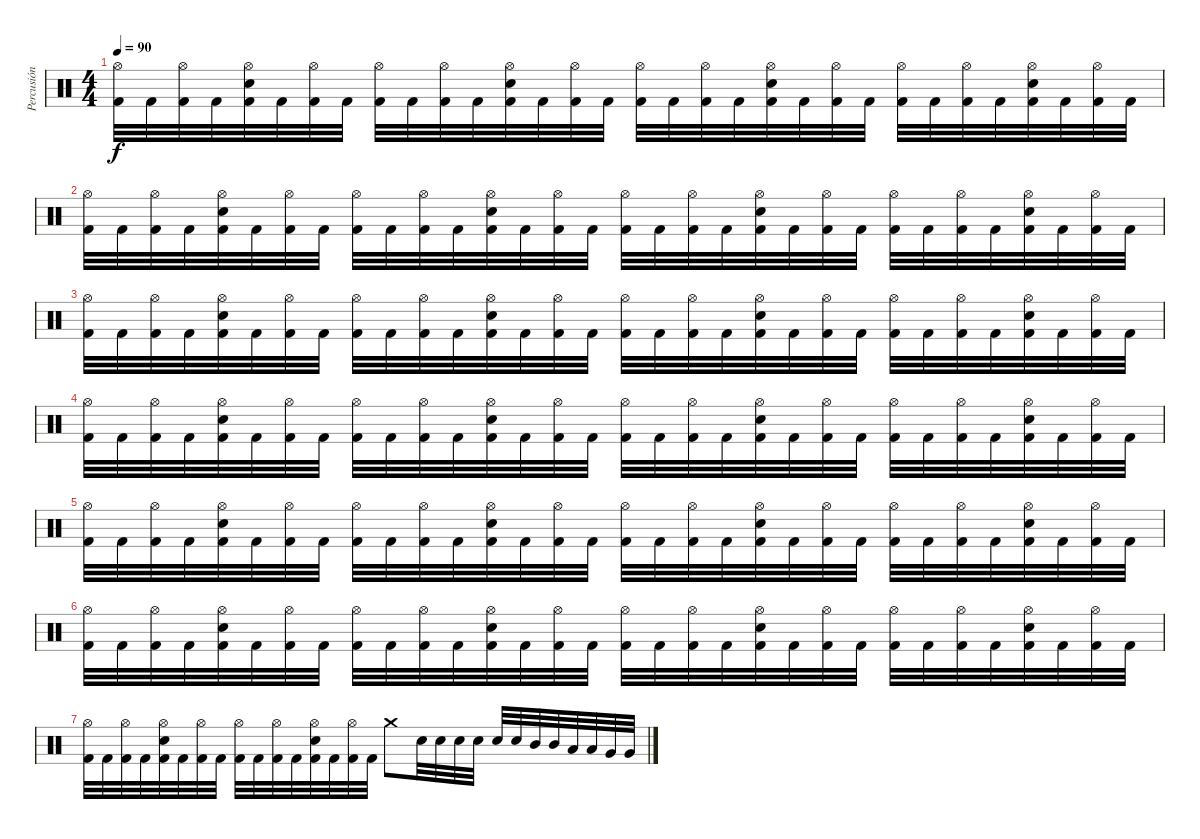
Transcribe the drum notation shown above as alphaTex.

\track ("Percusión" "Percusión") {instrument percussion}
\staff {score}
\articulation defaults
\ts (4 4)
\tempo 90
\clef neutral
\ks c
("Hi-Hat (open)" "Kick (hit) 2").32{dy f} "Kick (hit) 2".32 ("Hi-Hat (open)" "Kick (hit) 2").32 "Kick (hit) 2".32 ("Hi-Hat (open)" "Electric Snare (hit)" "Kick (hit) 2").32 "Kick (hit) 2".32 ("Hi-Hat (open)" "Kick (hit) 2").32 "Kick (hit) 2".32 ("Hi-Hat (open)" "Kick (hit) 2").32 "Kick (hit) 2".32 ("Hi-Hat (open)" "Kick (hit) 2").32 "Kick (hit) 2".32 ("Hi-Hat (open)" "Electric Snare (hit)" "Kick (hit) 2").32 "Kick (hit) 2".32 ("Hi-Hat (open)" "Kick (hit) 2").32 "Kick (hit) 2".32 ("Hi-Hat (open)" "Kick (hit) 2").32 "Kick (hit) 2".32 ("Hi-Hat (open)" "Kick (hit) 2").32 "Kick (hit) 2".32 ("Hi-Hat (open)" "Electric Snare (hit)" "Kick (hit) 2").32 "Kick (hit) 2".32 ("Hi-Hat (open)" "Kick (hit) 2").32 "Kick (hit) 2".32 ("Hi-Hat (open)" "Kick (hit) 2").32 "Kick (hit) 2".32 ("Hi-Hat (open)" "Kick (hit) 2").32 "Kick (hit) 2".32 ("Hi-Hat (open)" "Electric Snare (hit)" "Kick (hit) 2").32 "Kick (hit) 2".32 ("Hi-Hat (open)" "Kick (hit) 2").32 "Kick (hit) 2".32 |
("Hi-Hat (open)" "Kick (hit) 2").32 "Kick (hit) 2".32 ("Hi-Hat (open)" "Kick (hit) 2").32 "Kick (hit) 2".32 ("Hi-Hat (open)" "Electric Snare (hit)" "Kick (hit) 2").32 "Kick (hit) 2".32 ("Hi-Hat (open)" "Kick (hit) 2").32 "Kick (hit) 2".32 ("Hi-Hat (open)" "Kick (hit) 2").32 "Kick (hit) 2".32 ("Hi-Hat (open)" "Kick (hit) 2").32 "Kick (hit) 2".32 ("Hi-Hat (open)" "Electric Snare (hit)" "Kick (hit) 2").32 "Kick (hit) 2".32 ("Hi-Hat (open)" "Kick (hit) 2").32 "Kick (hit) 2".32 ("Hi-Hat (open)" "Kick (hit) 2").32 "Kick (hit) 2".32 ("Hi-Hat (open)" "Kick (hit) 2").32 "Kick (hit) 2".32 ("Hi-Hat (open)" "Electric Snare (hit)" "Kick (hit) 2").32 "Kick (hit) 2".32 ("Hi-Hat (open)" "Kick (hit) 2").32 "Kick (hit) 2".32 ("Hi-Hat (open)" "Kick (hit) 2").32 "Kick (hit) 2".32 ("Hi-Hat (open)" "Kick (hit) 2").32 "Kick (hit) 2".32 ("Hi-Hat (open)" "Electric Snare (hit)" "Kick (hit) 2").32 "Kick (hit) 2".32 ("Hi-Hat (open)" "Kick (hit) 2").32 "Kick (hit) 2".32 |
("Hi-Hat (open)" "Kick (hit) 2").32 "Kick (hit) 2".32 ("Hi-Hat (open)" "Kick (hit) 2").32 "Kick (hit) 2".32 ("Hi-Hat (open)" "Electric Snare (hit)" "Kick (hit) 2").32 "Kick (hit) 2".32 ("Hi-Hat (open)" "Kick (hit) 2").32 "Kick (hit) 2".32 ("Hi-Hat (open)" "Kick (hit) 2").32 "Kick (hit) 2".32 ("Hi-Hat (open)" "Kick (hit) 2").32 "Kick (hit) 2".32 ("Hi-Hat (open)" "Electric Snare (hit)" "Kick (hit) 2").32 "Kick (hit) 2".32 ("Hi-Hat (open)" "Kick (hit) 2").32 "Kick (hit) 2".32 ("Hi-Hat (open)" "Kick (hit) 2").32 "Kick (hit) 2".32 ("Hi-Hat (open)" "Kick (hit) 2").32 "Kick (hit) 2".32 ("Hi-Hat (open)" "Electric Snare (hit)" "Kick (hit) 2").32 "Kick (hit) 2".32 ("Hi-Hat (open)" "Kick (hit) 2").32 "Kick (hit) 2".32 ("Hi-Hat (open)" "Kick (hit) 2").32 "Kick (hit) 2".32 ("Hi-Hat (open)" "Kick (hit) 2").32 "Kick (hit) 2".32 ("Hi-Hat (open)" "Electric Snare (hit)" "Kick (hit) 2").32 "Kick (hit) 2".32 ("Hi-Hat (open)" "Kick (hit) 2").32 "Kick (hit) 2".32 |
("Hi-Hat (open)" "Kick (hit) 2").32 "Kick (hit) 2".32 ("Hi-Hat (open)" "Kick (hit) 2").32 "Kick (hit) 2".32 ("Hi-Hat (open)" "Electric Snare (hit)" "Kick (hit) 2").32 "Kick (hit) 2".32 ("Hi-Hat (open)" "Kick (hit) 2").32 "Kick (hit) 2".32 ("Hi-Hat (open)" "Kick (hit) 2").32 "Kick (hit) 2".32 ("Hi-Hat (open)" "Kick (hit) 2").32 "Kick (hit) 2".32 ("Hi-Hat (open)" "Electric Snare (hit)" "Kick (hit) 2").32 "Kick (hit) 2".32 ("Hi-Hat (open)" "Kick (hit) 2").32 "Kick (hit) 2".32 ("Hi-Hat (open)" "Kick (hit) 2").32 "Kick (hit) 2".32 ("Hi-Hat (open)" "Kick (hit) 2").32 "Kick (hit) 2".32 ("Hi-Hat (open)" "Electric Snare (hit)" "Kick (hit) 2").32 "Kick (hit) 2".32 ("Hi-Hat (open)" "Kick (hit) 2").32 "Kick (hit) 2".32 ("Hi-Hat (open)" "Kick (hit) 2").32 "Kick (hit) 2".32 ("Hi-Hat (open)" "Kick (hit) 2").32 "Kick (hit) 2".32 ("Hi-Hat (open)" "Electric Snare (hit)" "Kick (hit) 2").32 "Kick (hit) 2".32 ("Hi-Hat (open)" "Kick (hit) 2").32 "Kick (hit) 2".32 |
("Hi-Hat (open)" "Kick (hit) 2").32 "Kick (hit) 2".32 ("Hi-Hat (open)" "Kick (hit) 2").32 "Kick (hit) 2".32 ("Hi-Hat (open)" "Electric Snare (hit)" "Kick (hit) 2").32 "Kick (hit) 2".32 ("Hi-Hat (open)" "Kick (hit) 2").32 "Kick (hit) 2".32 ("Hi-Hat (open)" "Kick (hit) 2").32 "Kick (hit) 2".32 ("Hi-Hat (open)" "Kick (hit) 2").32 "Kick (hit) 2".32 ("Hi-Hat (open)" "Electric Snare (hit)" "Kick (hit) 2").32 "Kick (hit) 2".32 ("Hi-Hat (open)" "Kick (hit) 2").32 "Kick (hit) 2".32 ("Hi-Hat (open)" "Kick (hit) 2").32 "Kick (hit) 2".32 ("Hi-Hat (open)" "Kick (hit) 2").32 "Kick (hit) 2".32 ("Hi-Hat (open)" "Electric Snare (hit)" "Kick (hit) 2").32 "Kick (hit) 2".32 ("Hi-Hat (open)" "Kick (hit) 2").32 "Kick (hit) 2".32 ("Hi-Hat (open)" "Kick (hit) 2").32 "Kick (hit) 2".32 ("Hi-Hat (open)" "Kick (hit) 2").32 "Kick (hit) 2".32 ("Hi-Hat (open)" "Electric Snare (hit)" "Kick (hit) 2").32 "Kick (hit) 2".32 ("Hi-Hat (open)" "Kick (hit) 2").32 "Kick (hit) 2".32 |
("Hi-Hat (open)" "Kick (hit) 2").32 "Kick (hit) 2".32 ("Hi-Hat (open)" "Kick (hit) 2").32 "Kick (hit) 2".32 ("Hi-Hat (open)" "Electric Snare (hit)" "Kick (hit) 2").32 "Kick (hit) 2".32 ("Hi-Hat (open)" "Kick (hit) 2").32 "Kick (hit) 2".32 ("Hi-Hat (open)" "Kick (hit) 2").32 "Kick (hit) 2".32 ("Hi-Hat (open)" "Kick (hit) 2").32 "Kick (hit) 2".32 ("Hi-Hat (open)" "Electric Snare (hit)" "Kick (hit) 2").32 "Kick (hit) 2".32 ("Hi-Hat (open)" "Kick (hit) 2").32 "Kick (hit) 2".32 ("Hi-Hat (open)" "Kick (hit) 2").32 "Kick (hit) 2".32 ("Hi-Hat (open)" "Kick (hit) 2").32 "Kick (hit) 2".32 ("Hi-Hat (open)" "Electric Snare (hit)" "Kick (hit) 2").32 "Kick (hit) 2".32 ("Hi-Hat (open)" "Kick (hit) 2").32 "Kick (hit) 2".32 ("Hi-Hat (open)" "Kick (hit) 2").32 "Kick (hit) 2".32 ("Hi-Hat (open)" "Kick (hit) 2").32 "Kick (hit) 2".32 ("Hi-Hat (open)" "Electric Snare (hit)" "Kick (hit) 2").32 "Kick (hit) 2".32 ("Hi-Hat (open)" "Kick (hit) 2").32 "Kick (hit) 2".32 |
("Hi-Hat (open)" "Kick (hit) 2").32 "Kick (hit) 2".32 ("Hi-Hat (open)" "Kick (hit) 2").32 "Kick (hit) 2".32 ("Hi-Hat (open)" "Electric Snare (hit)" "Kick (hit) 2").32 "Kick (hit) 2".32 ("Hi-Hat (open)" "Kick (hit) 2").32 "Kick (hit) 2".32 ("Hi-Hat (open)" "Kick (hit) 2").32 "Kick (hit) 2".32 ("Hi-Hat (open)" "Kick (hit) 2").32 "Kick (hit) 2".32 ("Hi-Hat (open)" "Electric Snare (hit)" "Kick (hit) 2").32 "Kick (hit) 2".32 ("Hi-Hat (open)" "Kick (hit) 2").32 "Kick (hit) 2".32 "Crash medium (hit)".8 "Electric Snare (hit)".32 "Electric Snare (hit)".32 "Electric Snare (hit)".32 "Electric Snare (hit)".32 "Electric Snare (hit)".32 "Electric Snare (hit)".32 "Mid Tom (hit)".32 "Mid Tom (hit)".32 "Low Tom (hit)".32 "Low Tom (hit)".32 "Very Low Tom (hit)".32 "Very Low Tom (hit)".32
